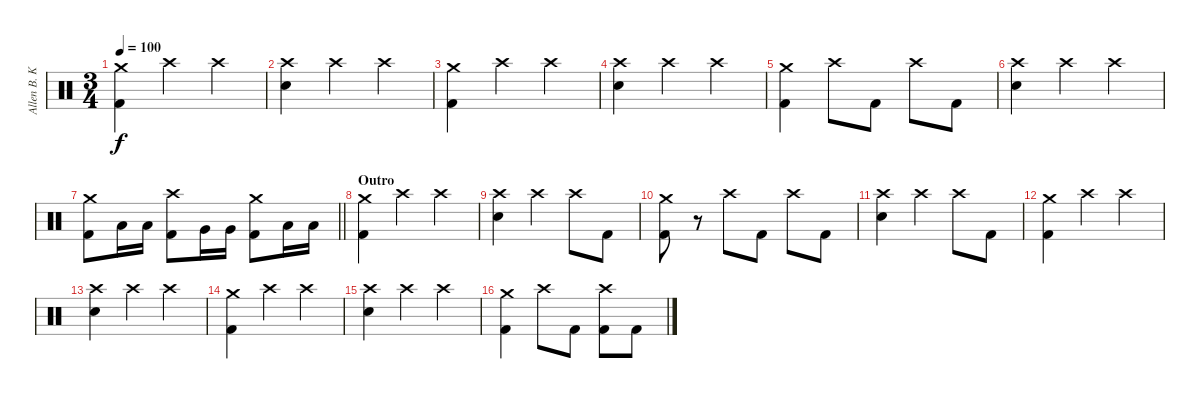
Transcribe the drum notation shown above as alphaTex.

\track ("Allen B. Konstanz (Drums)" "Allen B. K") {instrument percussion}
\staff {score}
\articulation defaults
\ts (3 4)
\tempo 100
\clef neutral
\ks c
("Crash medium (hit)" "Kick (hit) 2").4{dy f} "Crash high (hit)".4 "Crash high (hit)".4 |
("Crash high (hit)" "Snare (hit) 2").4 "Crash high (hit)".4 "Crash high (hit)".4 |
("Crash medium (hit)" "Kick (hit) 2").4 "Crash high (hit)".4 "Crash high (hit)".4 |
("Crash high (hit)" "Snare (hit) 2").4 "Crash high (hit)".4 "Crash high (hit)".4 |
("Crash medium (hit)" "Kick (hit) 2").4 "Crash high (hit)".8 "Kick (hit) 2".8 "Crash high (hit)".8 "Kick (hit) 2".8 |
("Crash high (hit)" "Snare (hit) 2").4 "Crash high (hit)".4 "Crash high (hit)".4 |
\barLineRight lightlight
("Crash medium (hit)" "Kick (hit) 2").8 "Low Tom (hit)".16 "Low Tom (hit)".16 ("Crash high (hit)" "Kick (hit) 2").8 "Very Low Tom (hit)".16 "Very Low Tom (hit)".16 ("Crash medium (hit)" "Kick (hit) 2").8 "Low Floor Tom (hit)".16 "Low Floor Tom (hit)".16 |
\section ("" "Outro")
("Crash medium (hit)" "Kick (hit) 2").4 "Crash high (hit)".4 "Crash high (hit)".4 |
("Crash high (hit)" "Snare (hit) 2").4 "Crash high (hit)".4 "Crash high (hit)".8 "Kick (hit) 2".8 |
("Crash medium (hit)" "Kick (hit) 2").8 r.8 "Crash high (hit)".8 "Kick (hit) 2".8 "Crash high (hit)".8 "Kick (hit) 2".8 |
("Crash high (hit)" "Snare (hit) 2").4 "Crash high (hit)".4 "Crash high (hit)".8 "Kick (hit) 2".8 |
("Crash medium (hit)" "Kick (hit) 2").4 "Crash high (hit)".4 "Crash high (hit)".4 |
("Crash high (hit)" "Snare (hit) 2").4 "Crash high (hit)".4 "Crash high (hit)".4 |
("Crash medium (hit)" "Kick (hit) 2").4 "Crash high (hit)".4 "Crash high (hit)".4 |
("Crash high (hit)" "Snare (hit) 2").4 "Crash high (hit)".4 "Crash high (hit)".4 |
("Crash medium (hit)" "Kick (hit) 2").4 "Crash high (hit)".8 "Kick (hit) 2".8 ("Crash high (hit)" "Kick (hit) 2").8 "Kick (hit) 2".8
